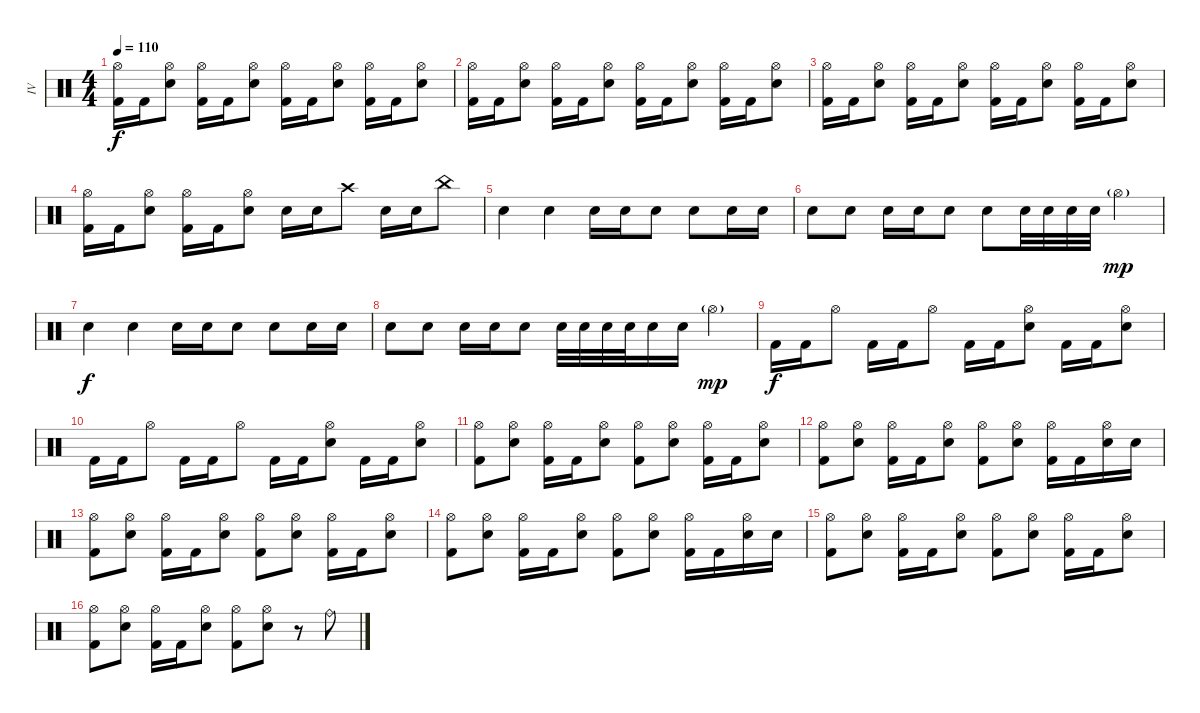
\track ("IV" "IV") {instrument percussion}
\staff {score}
\articulation defaults
\ts (4 4)
\tempo 110
\clef neutral
\ks c
("Hi-Hat (open)" "Kick (hit) 2").16{dy f} "Kick (hit) 2".16 ("Hi-Hat (open)" "Snare (hit) 2").8 ("Hi-Hat (open)" "Kick (hit) 2").16 "Kick (hit) 2".16 ("Hi-Hat (open)" "Snare (hit) 2").8 ("Hi-Hat (open)" "Kick (hit) 2").16 "Kick (hit) 2".16 ("Hi-Hat (open)" "Snare (hit) 2").8 ("Hi-Hat (open)" "Kick (hit) 2").16 "Kick (hit) 2".16 ("Hi-Hat (open)" "Snare (hit) 2").8 |
("Hi-Hat (open)" "Kick (hit) 2").16 "Kick (hit) 2".16 ("Hi-Hat (open)" "Snare (hit) 2").8 ("Hi-Hat (open)" "Kick (hit) 2").16 "Kick (hit) 2".16 ("Hi-Hat (open)" "Snare (hit) 2").8 ("Hi-Hat (open)" "Kick (hit) 2").16 "Kick (hit) 2".16 ("Hi-Hat (open)" "Snare (hit) 2").8 ("Hi-Hat (open)" "Kick (hit) 2").16 "Kick (hit) 2".16 ("Hi-Hat (open)" "Snare (hit) 2").8 |
("Hi-Hat (open)" "Kick (hit) 2").16 "Kick (hit) 2".16 ("Hi-Hat (open)" "Snare (hit) 2").8 ("Hi-Hat (open)" "Kick (hit) 2").16 "Kick (hit) 2".16 ("Hi-Hat (open)" "Snare (hit) 2").8 ("Hi-Hat (open)" "Kick (hit) 2").16 "Kick (hit) 2".16 ("Hi-Hat (open)" "Snare (hit) 2").8 ("Hi-Hat (open)" "Kick (hit) 2").16 "Kick (hit) 2".16 ("Hi-Hat (open)" "Snare (hit) 2").8 |
("Hi-Hat (open)" "Kick (hit) 2").16 "Kick (hit) 2".16 ("Hi-Hat (open)" "Snare (hit) 2").8 ("Hi-Hat (open)" "Kick (hit) 2").16 "Kick (hit) 2".16 ("Hi-Hat (open)" "Snare (hit) 2").8 "Snare (hit) 2".16 "Snare (hit) 2".16 "Crash high (hit)".8 "Snare (hit) 2".16 "Snare (hit) 2".16 "China (hit)".8 |
"Snare (hit) 2".4 "Snare (hit) 2".4 "Snare (hit) 2".16 "Snare (hit) 2".16 "Snare (hit) 2".8 "Snare (hit) 2".8 "Snare (hit) 2".16 "Snare (hit) 2".16 |
"Snare (hit) 2".8 "Snare (hit) 2".8 "Snare (hit) 2".16 "Snare (hit) 2".16 "Snare (hit) 2".8 "Snare (hit) 2".8 "Snare (hit) 2".32 "Snare (hit) 2".32 "Snare (hit) 2".32 "Snare (hit) 2".32 "Hi-Hat (open)"{g}.4{dy mp} |
"Snare (hit) 2".4{dy f} "Snare (hit) 2".4 "Snare (hit) 2".16 "Snare (hit) 2".16 "Snare (hit) 2".8 "Snare (hit) 2".8 "Snare (hit) 2".16 "Snare (hit) 2".16 |
"Snare (hit) 2".8 "Snare (hit) 2".8 "Snare (hit) 2".16 "Snare (hit) 2".16 "Snare (hit) 2".8 "Snare (hit) 2".32 "Snare (hit) 2".32 "Snare (hit) 2".32 "Snare (hit) 2".32 "Snare (hit) 2".16 "Snare (hit) 2".16 "Hi-Hat (open)"{g}.4{dy mp} |
"Kick (hit) 2".16{dy f} "Kick (hit) 2".16 "Hi-Hat (open)".8 "Kick (hit) 2".16 "Kick (hit) 2".16 "Hi-Hat (open)".8 "Kick (hit) 2".16 "Kick (hit) 2".16 ("Hi-Hat (open)" "Snare (hit) 2").8 "Kick (hit) 2".16 "Kick (hit) 2".16 ("Hi-Hat (open)" "Snare (hit) 2").8 |
"Kick (hit) 2".16 "Kick (hit) 2".16 "Hi-Hat (open)".8 "Kick (hit) 2".16 "Kick (hit) 2".16 "Hi-Hat (open)".8 "Kick (hit) 2".16 "Kick (hit) 2".16 ("Hi-Hat (open)" "Snare (hit) 2").8 "Kick (hit) 2".16 "Kick (hit) 2".16 ("Hi-Hat (open)" "Snare (hit) 2").8 |
("Hi-Hat (open)" "Kick (hit) 2").8 ("Hi-Hat (open)" "Snare (hit) 2").8 ("Hi-Hat (open)" "Kick (hit) 2").16 "Kick (hit) 2".16 ("Hi-Hat (open)" "Snare (hit) 2").8 ("Hi-Hat (open)" "Kick (hit) 2").8 ("Hi-Hat (open)" "Snare (hit) 2").8 ("Hi-Hat (open)" "Kick (hit) 2").16 "Kick (hit) 2".16 ("Hi-Hat (open)" "Snare (hit) 2").8 |
("Hi-Hat (open)" "Kick (hit) 2").8 ("Hi-Hat (open)" "Snare (hit) 2").8 ("Hi-Hat (open)" "Kick (hit) 2").16 "Kick (hit) 2".16 ("Hi-Hat (open)" "Snare (hit) 2").8 ("Hi-Hat (open)" "Kick (hit) 2").8 ("Hi-Hat (open)" "Snare (hit) 2").8 ("Hi-Hat (open)" "Kick (hit) 2").16 "Kick (hit) 2".16 ("Hi-Hat (open)" "Snare (hit) 2").16 "Snare (hit) 2".16 |
("Hi-Hat (open)" "Kick (hit) 2").8 ("Hi-Hat (open)" "Snare (hit) 2").8 ("Hi-Hat (open)" "Kick (hit) 2").16 "Kick (hit) 2".16 ("Hi-Hat (open)" "Snare (hit) 2").8 ("Hi-Hat (open)" "Kick (hit) 2").8 ("Hi-Hat (open)" "Snare (hit) 2").8 ("Hi-Hat (open)" "Kick (hit) 2").16 "Kick (hit) 2".16 ("Hi-Hat (open)" "Snare (hit) 2").8 |
("Hi-Hat (open)" "Kick (hit) 2").8 ("Hi-Hat (open)" "Snare (hit) 2").8 ("Hi-Hat (open)" "Kick (hit) 2").16 "Kick (hit) 2".16 ("Hi-Hat (open)" "Snare (hit) 2").8 ("Hi-Hat (open)" "Kick (hit) 2").8 ("Hi-Hat (open)" "Snare (hit) 2").8 ("Hi-Hat (open)" "Kick (hit) 2").16 "Kick (hit) 2".16 ("Hi-Hat (open)" "Snare (hit) 2").16 "Snare (hit) 2".16 |
("Hi-Hat (open)" "Kick (hit) 2").8 ("Hi-Hat (open)" "Snare (hit) 2").8 ("Hi-Hat (open)" "Kick (hit) 2").16 "Kick (hit) 2".16 ("Hi-Hat (open)" "Snare (hit) 2").8 ("Hi-Hat (open)" "Kick (hit) 2").8 ("Hi-Hat (open)" "Snare (hit) 2").8 ("Hi-Hat (open)" "Kick (hit) 2").16 "Kick (hit) 2".16 ("Hi-Hat (open)" "Snare (hit) 2").8 |
("Hi-Hat (open)" "Kick (hit) 2").8 ("Hi-Hat (open)" "Snare (hit) 2").8 ("Hi-Hat (open)" "Kick (hit) 2").16 "Kick (hit) 2".16 ("Hi-Hat (open)" "Snare (hit) 2").8 ("Hi-Hat (open)" "Kick (hit) 2").8 ("Hi-Hat (open)" "Snare (hit) 2").8 r.8 "Ride (bell)".8
